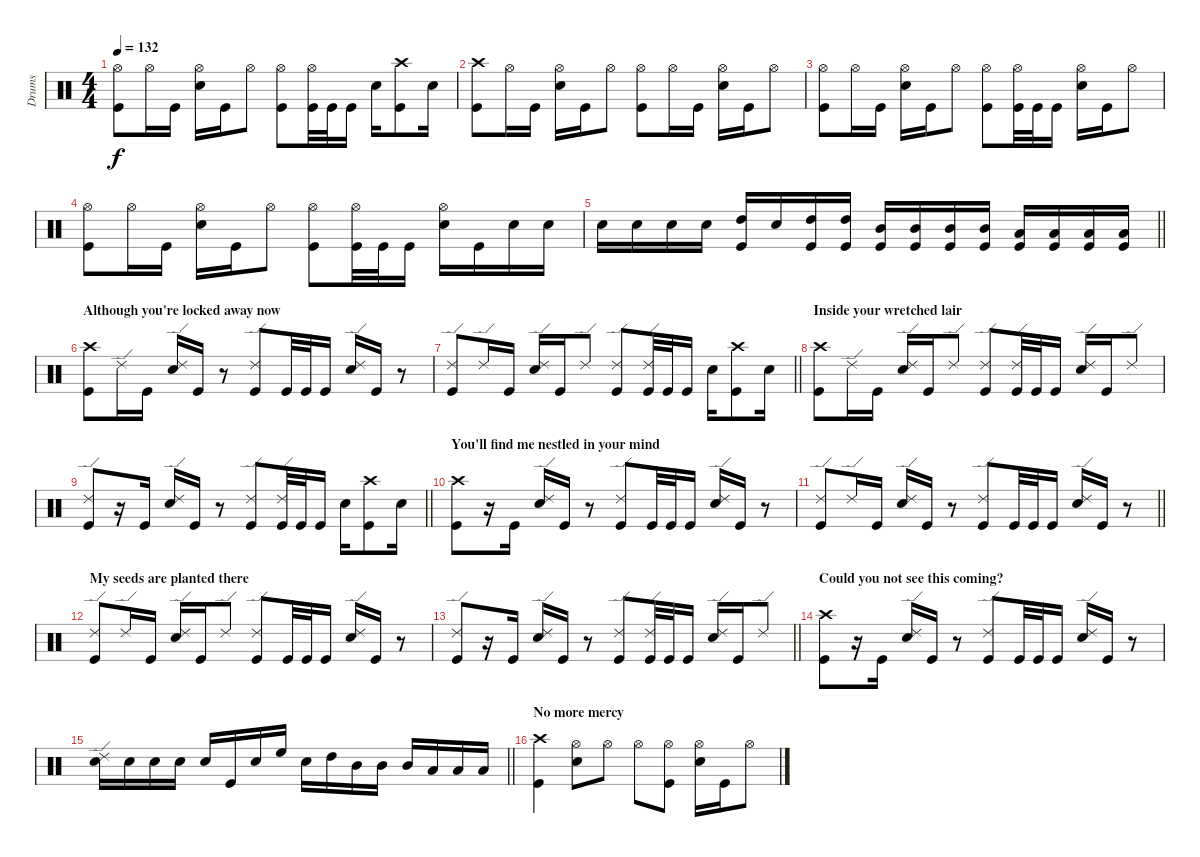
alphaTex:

\track ("Drums" "Drums") {instrument percussion}
\staff {score}
\articulation defaults
\ts (4 4)
\tempo 132
\clef neutral
\ks c
("Hi-Hat (open)" "Kick (hit)").8{dy f} "Hi-Hat (open)".16 "Kick (hit)".16 ("Hi-Hat (open)" "Snare (hit) 2").16 "Kick (hit)".16 "Hi-Hat (open)".8 ("Hi-Hat (open)" "Kick (hit)").8 ("Hi-Hat (open)" "Kick (hit)").32 "Kick (hit)".32 "Kick (hit)".16 "Snare (hit) 2".16 ("Crash high (hit)" "Kick (hit)").8 "Snare (hit) 2".16 |
("Crash high (hit)" "Kick (hit)").8 "Hi-Hat (open)".16 "Kick (hit)".16 ("Hi-Hat (open)" "Snare (hit) 2").16 "Kick (hit)".16 "Hi-Hat (open)".8 ("Hi-Hat (open)" "Kick (hit)").8 "Hi-Hat (open)".16 "Kick (hit)".16 ("Hi-Hat (open)" "Snare (hit) 2").16 "Kick (hit)".16 "Hi-Hat (open)".8 |
("Hi-Hat (open)" "Kick (hit)").8 "Hi-Hat (open)".16 "Kick (hit)".16 ("Hi-Hat (open)" "Snare (hit) 2").16 "Kick (hit)".16 "Hi-Hat (open)".8 ("Hi-Hat (open)" "Kick (hit)").8 ("Hi-Hat (open)" "Kick (hit)").32 "Kick (hit)".32 "Kick (hit)".16 ("Hi-Hat (open)" "Snare (hit) 2").16 "Kick (hit)".16 "Hi-Hat (open)".8 |
("Hi-Hat (open)" "Kick (hit)").8 "Hi-Hat (open)".16 "Kick (hit)".16 ("Hi-Hat (open)" "Snare (hit) 2").16 "Kick (hit)".16 "Hi-Hat (open)".8 ("Hi-Hat (open)" "Kick (hit)").8 ("Hi-Hat (open)" "Kick (hit)").32 "Kick (hit)".32 "Kick (hit)".16 ("Hi-Hat (open)" "Snare (hit) 2").16 "Kick (hit)".16 "Snare (hit) 2".16 "Snare (hit) 2".16 |
\barLineRight lightlight "Snare (hit) 2".16 "Snare (hit) 2".16 "Snare (hit) 2".16 "Snare (hit) 2".16
("High Tom (hit)" "Kick (hit)").16 "Snare (hit) 2".16 ("High Tom (hit)" "Kick (hit)").16 ("High Tom (hit)" "Kick (hit)").16 ("Mid Tom (hit)" "Kick (hit)").16 ("Mid Tom (hit)" "Kick (hit)").16 ("Mid Tom (hit)" "Kick (hit)").16 ("Mid Tom (hit)" "Kick (hit)").16 ("Low Tom (hit)" "Kick (hit)").16 ("Low Tom (hit)" "Kick (hit)").16 ("Low Tom (hit)" "Kick (hit)").16 ("Low Tom (hit)" "Kick (hit)").16 |
\section ("" "Although you're locked away now")
("Crash high (hit)" "Kick (hit)").8 "Ride (edge) 2".16 "Kick (hit)".16 ("Ride (edge) 2" "Snare (hit) 2").16 "Kick (hit)".16 r.8 ("Ride (edge) 2" "Kick (hit)").8 "Kick (hit)".32 "Kick (hit)".32 "Kick (hit)".16 ("Ride (edge) 2" "Snare (hit) 2").16 "Kick (hit)".16 r.8 |
\barLineRight lightlight
("Ride (edge) 2" "Kick (hit)").8 "Ride (edge) 2".16 "Kick (hit)".16 ("Ride (edge) 2" "Snare (hit) 2").16 "Kick (hit)".16 "Ride (edge) 2".8 ("Ride (edge) 2" "Kick (hit)").8 ("Ride (edge) 2" "Kick (hit)").32 "Kick (hit)".32 "Kick (hit)".16 "Snare (hit) 2".16 ("Crash high (hit)" "Kick (hit)").8 "Snare (hit) 2".16 |
\section ("" "Inside your wretched lair")
("Crash high (hit)" "Kick (hit)").8 "Ride (edge) 2".16 "Kick (hit)".16 ("Ride (edge) 2" "Snare (hit) 2").16 "Kick (hit)".16 "Ride (edge) 2".8 ("Ride (edge) 2" "Kick (hit)").8 ("Ride (edge) 2" "Kick (hit)").32 "Kick (hit)".32 "Kick (hit)".16 ("Ride (edge) 2" "Snare (hit) 2").16 "Kick (hit)".16 "Ride (edge) 2".8 |
\barLineRight lightlight
("Ride (edge) 2" "Kick (hit)").8 r.16 "Kick (hit)".16 ("Ride (edge) 2" "Snare (hit) 2").16 "Kick (hit)".16 r.8 ("Ride (edge) 2" "Kick (hit)").8 ("Ride (edge) 2" "Kick (hit)").32 "Kick (hit)".32 "Kick (hit)".16 "Snare (hit) 2".16 ("Crash high (hit)" "Kick (hit)").8 "Snare (hit) 2".16 |
\section ("" "You'll find me nestled in your mind")
("Crash high (hit)" "Kick (hit)").8 r.16 "Kick (hit)".16 ("Ride (edge) 2" "Snare (hit) 2").16 "Kick (hit)".16 r.8 ("Ride (edge) 2" "Kick (hit)").8 "Kick (hit)".32 "Kick (hit)".32 "Kick (hit)".16 ("Ride (edge) 2" "Snare (hit) 2").16 "Kick (hit)".16 r.8 |
\barLineRight lightlight
("Ride (edge) 2" "Kick (hit)").8 "Ride (edge) 2".16 "Kick (hit)".16 ("Ride (edge) 2" "Snare (hit) 2").16 "Kick (hit)".16 r.8 ("Ride (edge) 2" "Kick (hit)").8 "Kick (hit)".32 "Kick (hit)".32 "Kick (hit)".16 ("Ride (edge) 2" "Snare (hit) 2").16 "Kick (hit)".16 r.8 |
\section ("" "My seeds are planted there")
("Ride (edge) 2" "Kick (hit)").8 "Ride (edge) 2".16 "Kick (hit)".16 ("Ride (edge) 2" "Snare (hit) 2").16 "Kick (hit)".16 "Ride (edge) 2".8 ("Ride (edge) 2" "Kick (hit)").8 "Kick (hit)".32 "Kick (hit)".32 "Kick (hit)".16 ("Ride (edge) 2" "Snare (hit) 2").16 "Kick (hit)".16 r.8 |
\barLineRight lightlight
("Ride (edge) 2" "Kick (hit)").8 r.16 "Kick (hit)".16 ("Ride (edge) 2" "Snare (hit) 2").16 "Kick (hit)".16 r.8 ("Ride (edge) 2" "Kick (hit)").8 ("Ride (edge) 2" "Kick (hit)").32 "Kick (hit)".32 "Kick (hit)".16 ("Ride (edge) 2" "Snare (hit) 2").16 "Kick (hit)".16 "Ride (edge) 2".8 |
\section ("" "Could you not see this coming?")
("Crash high (hit)" "Kick (hit)").8 r.16 "Kick (hit)".16 ("Ride (edge) 2" "Snare (hit) 2").16 "Kick (hit)".16 r.8 ("Ride (edge) 2" "Kick (hit)").8 "Kick (hit)".32 "Kick (hit)".32 "Kick (hit)".16 ("Ride (edge) 2" "Snare (hit) 2").16 "Kick (hit)".16 r.8 |
\barLineRight lightlight
("Ride (edge) 2" "Snare (hit) 2").16 "Snare (hit) 2".16 "Snare (hit) 2".16 "Snare (hit) 2".16 "Snare (hit) 2".16 "Kick (hit)".16 "Snare (hit) 2".16 "High Floor Tom (hit)".16 "Snare (hit) 2".16 "High Tom (hit)".16 "Mid Tom (hit)".16 "Mid Tom (hit)".16 "Mid Tom (hit)".16 "Low Tom (hit)".16 "Low Tom (hit)".16 "Low Tom (hit)".16 |
\section ("" "No more mercy")
("Crash high (hit)" "Kick (hit)").4 ("Hi-Hat (open)" "Snare (hit) 2").8 "Hi-Hat (open)".8 "Hi-Hat (open)".8 ("Hi-Hat (open)" "Kick (hit)").8 ("Hi-Hat (open)" "Snare (hit) 2").16 "Kick (hit)".16 "Hi-Hat (open)".8
